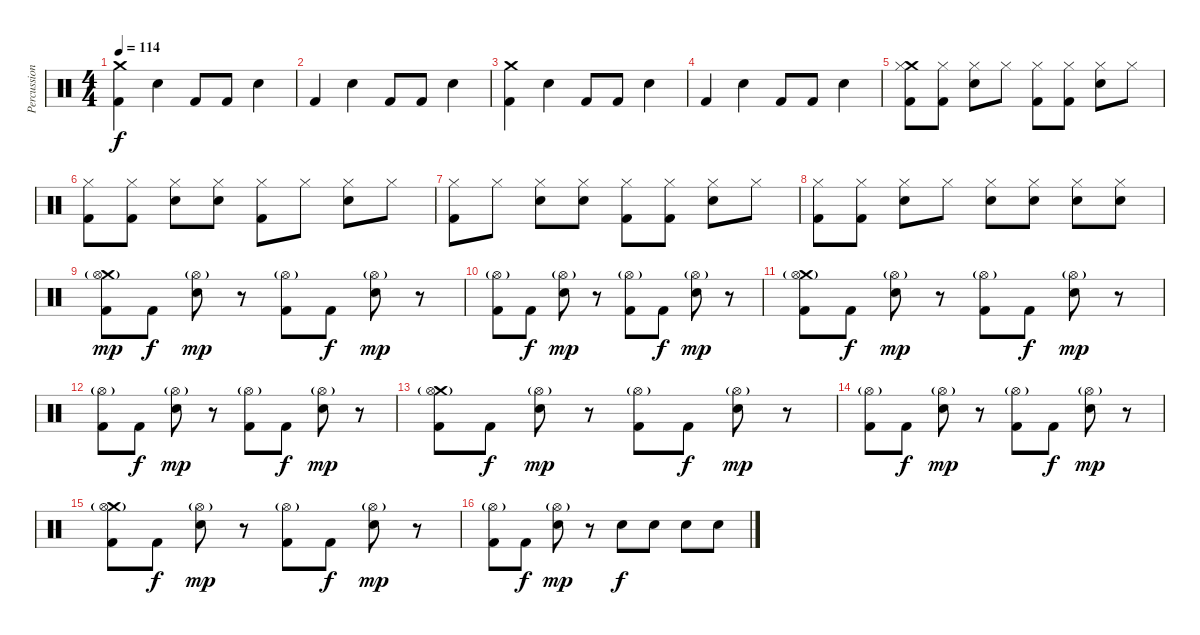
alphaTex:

\track ("Percussion" "Percussion") {instrument percussion}
\staff {score}
\articulation defaults
\ts (4 4)
\tempo 114
\clef neutral
\ks c
("Crash medium (hit)" "Kick (hit) 2").4{dy f} "Snare (hit) 2".4 "Kick (hit) 2".8 "Kick (hit) 2".8 "Snare (hit) 2".4 |
"Kick (hit) 2".4 "Snare (hit) 2".4 "Kick (hit) 2".8 "Kick (hit) 2".8 "Snare (hit) 2".4 |
("Crash medium (hit)" "Kick (hit) 2").4 "Snare (hit) 2".4 "Kick (hit) 2".8 "Kick (hit) 2".8 "Snare (hit) 2".4 |
"Kick (hit) 2".4 "Snare (hit) 2".4 "Kick (hit) 2".8 "Kick (hit) 2".8 "Snare (hit) 2".4 |
("Crash medium (hit)" "Kick (hit) 2" "Hi-Hat (closed)").8 ("Kick (hit) 2" "Hi-Hat (closed)").8 ("Snare (hit) 2" "Hi-Hat (closed)").8 "Hi-Hat (closed)".8 ("Kick (hit) 2" "Hi-Hat (closed)").8 ("Kick (hit) 2" "Hi-Hat (closed)").8 ("Snare (hit) 2" "Hi-Hat (closed)").8 "Hi-Hat (closed)".8 |
("Kick (hit) 2" "Hi-Hat (closed)").8 ("Kick (hit) 2" "Hi-Hat (closed)").8 ("Snare (hit) 2" "Hi-Hat (closed)").8 ("Snare (hit) 2" "Hi-Hat (closed)").8 ("Kick (hit) 2" "Hi-Hat (closed)").8 "Hi-Hat (closed)".8 ("Snare (hit) 2" "Hi-Hat (closed)").8 "Hi-Hat (closed)".8 |
("Kick (hit) 2" "Hi-Hat (closed)").8 "Hi-Hat (closed)".8 ("Snare (hit) 2" "Hi-Hat (closed)").8 ("Snare (hit) 2" "Hi-Hat (closed)").8 ("Kick (hit) 2" "Hi-Hat (closed)").8 ("Kick (hit) 2" "Hi-Hat (closed)").8 ("Snare (hit) 2" "Hi-Hat (closed)").8 "Hi-Hat (closed)".8 |
("Kick (hit) 2" "Hi-Hat (closed)").8 ("Kick (hit) 2" "Hi-Hat (closed)").8 ("Snare (hit) 2" "Hi-Hat (closed)").8 "Hi-Hat (closed)".8 ("Snare (hit) 2" "Hi-Hat (closed)").8 ("Snare (hit) 2" "Hi-Hat (closed)").8 ("Snare (hit) 2" "Hi-Hat (closed)").8 ("Snare (hit) 2" "Hi-Hat (closed)").8 |
("Crash medium (hit)" "Kick (hit) 2" "Hi-Hat (open)"{g}).8{dy mp} "Kick (hit) 2".8{dy f} ("Snare (hit) 2" "Hi-Hat (open)"{g}).8{dy mp} r.8 ("Kick (hit) 2" "Hi-Hat (open)"{g}).8 "Kick (hit) 2".8{dy f} ("Snare (hit) 2" "Hi-Hat (open)"{g}).8{dy mp} r.8 |
("Kick (hit) 2" "Hi-Hat (open)"{g}).8 "Kick (hit) 2".8{dy f} ("Snare (hit) 2" "Hi-Hat (open)"{g}).8{dy mp} r.8 ("Kick (hit) 2" "Hi-Hat (open)"{g}).8 "Kick (hit) 2".8{dy f} ("Snare (hit) 2" "Hi-Hat (open)"{g}).8{dy mp} r.8 |
("Crash medium (hit)" "Kick (hit) 2" "Hi-Hat (open)"{g}).8 "Kick (hit) 2".8{dy f} ("Snare (hit) 2" "Hi-Hat (open)"{g}).8{dy mp} r.8 ("Kick (hit) 2" "Hi-Hat (open)"{g}).8 "Kick (hit) 2".8{dy f} ("Snare (hit) 2" "Hi-Hat (open)"{g}).8{dy mp} r.8 |
("Kick (hit) 2" "Hi-Hat (open)"{g}).8 "Kick (hit) 2".8{dy f} ("Snare (hit) 2" "Hi-Hat (open)"{g}).8{dy mp} r.8 ("Kick (hit) 2" "Hi-Hat (open)"{g}).8 "Kick (hit) 2".8{dy f} ("Snare (hit) 2" "Hi-Hat (open)"{g}).8{dy mp} r.8 |
("Crash medium (hit)" "Kick (hit) 2" "Hi-Hat (open)"{g}).8 "Kick (hit) 2".8{dy f} ("Snare (hit) 2" "Hi-Hat (open)"{g}).8{dy mp} r.8 ("Kick (hit) 2" "Hi-Hat (open)"{g}).8 "Kick (hit) 2".8{dy f} ("Snare (hit) 2" "Hi-Hat (open)"{g}).8{dy mp} r.8 |
("Kick (hit) 2" "Hi-Hat (open)"{g}).8 "Kick (hit) 2".8{dy f} ("Snare (hit) 2" "Hi-Hat (open)"{g}).8{dy mp} r.8 ("Kick (hit) 2" "Hi-Hat (open)"{g}).8 "Kick (hit) 2".8{dy f} ("Snare (hit) 2" "Hi-Hat (open)"{g}).8{dy mp} r.8 |
("Crash medium (hit)" "Kick (hit) 2" "Hi-Hat (open)"{g}).8 "Kick (hit) 2".8{dy f} ("Snare (hit) 2" "Hi-Hat (open)"{g}).8{dy mp} r.8 ("Kick (hit) 2" "Hi-Hat (open)"{g}).8 "Kick (hit) 2".8{dy f} ("Snare (hit) 2" "Hi-Hat (open)"{g}).8{dy mp} r.8 |
("Kick (hit) 2" "Hi-Hat (open)"{g}).8 "Kick (hit) 2".8{dy f} ("Snare (hit) 2" "Hi-Hat (open)"{g}).8{dy mp} r.8 "Snare (hit) 2".8{dy f} "Snare (hit) 2".8 "Snare (hit) 2".8 "Snare (hit) 2".8
